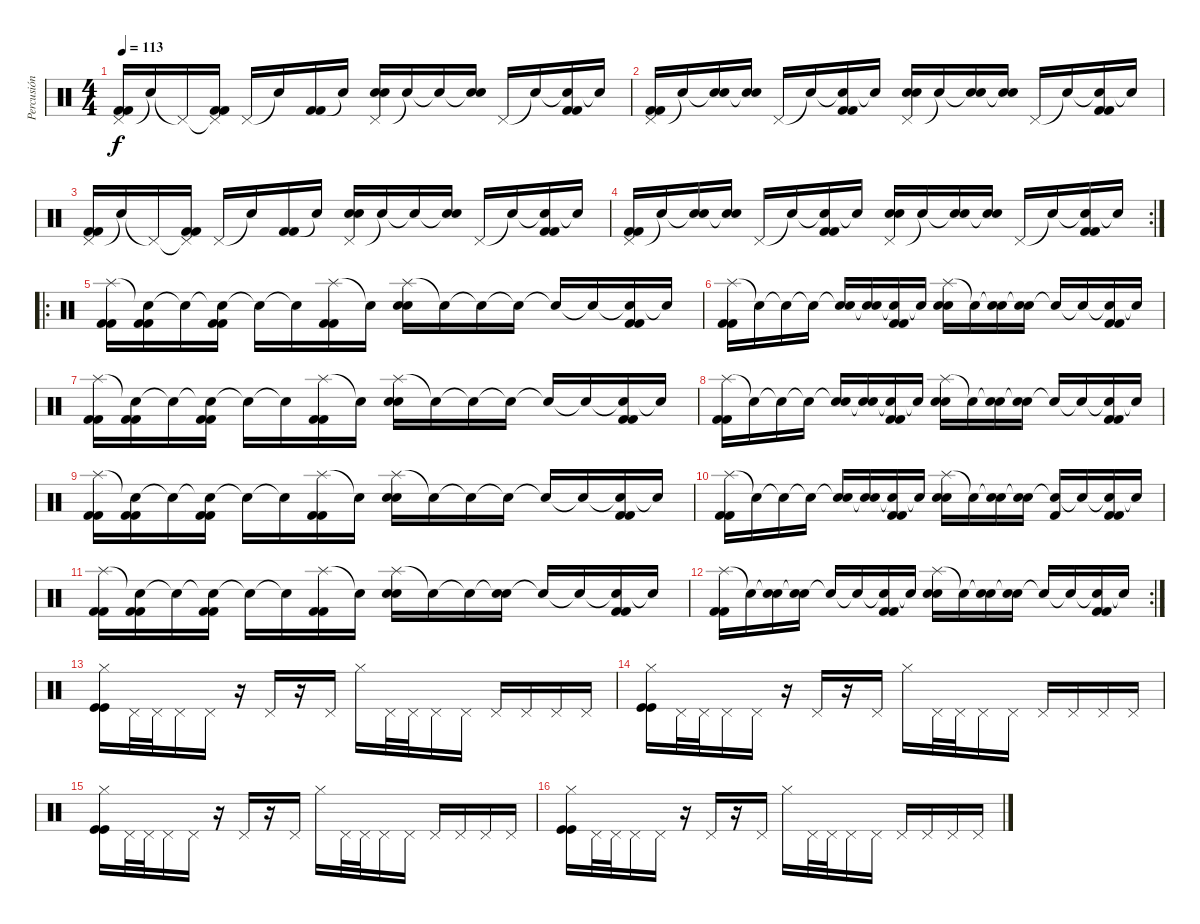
\track ("Percusión" "Percusión") {instrument percussion}
\staff {score}
\articulation defaults
\ts (4 4)
\tempo 113
\clef neutral
\ks c
("Pedal Hi-Hat (hit)" "Kick (hit) 2" "Kick (hit) 2").16{dy f} "Snare (hit)"{t}.16 "Pedal Hi-Hat (hit)"{t}.16 ("Pedal Hi-Hat (hit)"{t} "Kick (hit) 2" "Kick (hit) 2").16 "Pedal Hi-Hat (hit)".16 "Snare (hit)"{t}.16 ("Kick (hit) 2" "Kick (hit) 2").16 "Snare (hit)"{t}.16 ("Pedal Hi-Hat (hit)" "Electric Snare (hit)" "Electric Snare (hit)").16 "Snare (hit)"{t}.16 "Snare (hit)"{t}.16 ("Snare (hit)"{t} "Electric Snare (hit)").16 "Pedal Hi-Hat (hit)".16 "Snare (hit)"{t}.16 ("Snare (hit)"{t} "Kick (hit) 2" "Kick (hit) 2").16 "Snare (hit)"{t}.16 |
("Pedal Hi-Hat (hit)" "Kick (hit) 2" "Kick (hit) 2").16 "Snare (hit)"{t}.16 ("Snare (hit)"{t} "Electric Snare (hit)").16 ("Snare (hit)"{t} "Electric Snare (hit)").16 "Pedal Hi-Hat (hit)".16 "Snare (hit)"{t}.16 ("Snare (hit)"{t} "Kick (hit) 2" "Kick (hit) 2").16 "Snare (hit)"{t}.16 ("Pedal Hi-Hat (hit)" "Electric Snare (hit)" "Electric Snare (hit)").16 "Snare (hit)"{t}.16 ("Snare (hit)"{t} "Electric Snare (hit)").16 ("Snare (hit)"{t} "Electric Snare (hit)").16 "Pedal Hi-Hat (hit)".16 "Snare (hit)"{t}.16 ("Snare (hit)"{t} "Kick (hit) 2" "Kick (hit) 2").16 "Snare (hit)"{t}.16 |
("Pedal Hi-Hat (hit)" "Kick (hit) 2" "Kick (hit) 2").16 "Snare (hit)"{t}.16 "Pedal Hi-Hat (hit)"{t}.16 ("Pedal Hi-Hat (hit)"{t} "Kick (hit) 2" "Kick (hit) 2").16 "Pedal Hi-Hat (hit)".16 "Snare (hit)"{t}.16 ("Kick (hit) 2" "Kick (hit) 2").16 "Snare (hit)"{t}.16 ("Pedal Hi-Hat (hit)" "Electric Snare (hit)" "Electric Snare (hit)").16 "Snare (hit)"{t}.16 "Snare (hit)"{t}.16 ("Snare (hit)"{t} "Electric Snare (hit)").16 "Pedal Hi-Hat (hit)".16 "Snare (hit)"{t}.16 ("Snare (hit)"{t} "Kick (hit) 2" "Kick (hit) 2").16 "Snare (hit)"{t}.16 |
\rc 2
("Pedal Hi-Hat (hit)" "Kick (hit) 2" "Kick (hit) 2").16 "Snare (hit)"{t}.16 ("Snare (hit)"{t} "Electric Snare (hit)").16 ("Snare (hit)"{t} "Electric Snare (hit)").16 "Pedal Hi-Hat (hit)".16 "Snare (hit)"{t}.16 ("Snare (hit)"{t} "Kick (hit) 2" "Kick (hit) 2").16 "Snare (hit)"{t}.16 ("Pedal Hi-Hat (hit)" "Electric Snare (hit)" "Electric Snare (hit)").16 "Snare (hit)"{t}.16 ("Snare (hit)"{t} "Electric Snare (hit)").16 ("Snare (hit)"{t} "Electric Snare (hit)").16 "Pedal Hi-Hat (hit)".16 "Snare (hit)"{t}.16 ("Snare (hit)"{t} "Kick (hit) 2" "Kick (hit) 2").16 "Snare (hit)"{t}.16 |
\ro
("Splash (hit)" "Kick (hit) 2" "Kick (hit) 2").16 ("Snare (hit)"{t} "Kick (hit) 2" "Kick (hit) 2").16 "Snare (hit)"{t}.16 ("Snare (hit)"{t} "Kick (hit) 2" "Kick (hit) 2").16 "Snare (hit)"{t}.16 "Snare (hit)"{t}.16 ("Splash (hit)" "Kick (hit) 2" "Kick (hit) 2").16 "Snare (hit)"{t}.16 ("Splash (hit)" "Electric Snare (hit)" "Electric Snare (hit)").16 "Snare (hit)"{t}.16 "Snare (hit)"{t}.16 "Snare (hit)"{t}.16 "Snare (hit)"{t}.16 "Snare (hit)"{t}.16 ("Snare (hit)"{t} "Kick (hit) 2" "Kick (hit) 2").16 "Snare (hit)"{t}.16 |
("Splash (hit)" "Kick (hit) 2" "Kick (hit) 2").16 "Snare (hit)"{t}.16 "Snare (hit)"{t}.16 "Snare (hit)"{t}.16 ("Snare (hit)"{t} "Electric Snare (hit)").16 ("Snare (hit)"{t} "Electric Snare (hit)").16 ("Snare (hit)"{t} "Kick (hit) 2" "Kick (hit) 2").16 "Snare (hit)"{t}.16 ("Splash (hit)" "Electric Snare (hit)" "Electric Snare (hit)").16 "Snare (hit)"{t}.16 ("Snare (hit)"{t} "Electric Snare (hit)").16 ("Snare (hit)"{t} "Electric Snare (hit)").16 "Snare (hit)"{t}.16 "Snare (hit)"{t}.16 ("Snare (hit)"{t} "Kick (hit) 2" "Kick (hit) 2").16 "Snare (hit)"{t}.16 |
("Splash (hit)" "Kick (hit) 2" "Kick (hit) 2").16 ("Snare (hit)"{t} "Kick (hit) 2" "Kick (hit) 2").16 "Snare (hit)"{t}.16 ("Snare (hit)"{t} "Kick (hit) 2" "Kick (hit) 2").16 "Snare (hit)"{t}.16 "Snare (hit)"{t}.16 ("Splash (hit)" "Kick (hit) 2" "Kick (hit) 2").16 "Snare (hit)"{t}.16 ("Splash (hit)" "Electric Snare (hit)" "Electric Snare (hit)").16 "Snare (hit)"{t}.16 "Snare (hit)"{t}.16 "Snare (hit)"{t}.16 "Snare (hit)"{t}.16 "Snare (hit)"{t}.16 ("Snare (hit)"{t} "Kick (hit) 2" "Kick (hit) 2").16 "Snare (hit)"{t}.16 |
("Splash (hit)" "Kick (hit) 2" "Kick (hit) 2").16 "Snare (hit)"{t}.16 "Snare (hit)"{t}.16 "Snare (hit)"{t}.16 ("Snare (hit)"{t} "Electric Snare (hit)").16 ("Snare (hit)"{t} "Electric Snare (hit)").16 ("Snare (hit)"{t} "Kick (hit) 2" "Kick (hit) 2").16 "Snare (hit)"{t}.16 ("Splash (hit)" "Electric Snare (hit)" "Electric Snare (hit)").16 "Snare (hit)"{t}.16 ("Snare (hit)"{t} "Electric Snare (hit)").16 ("Snare (hit)"{t} "Electric Snare (hit)").16 "Snare (hit)"{t}.16 "Snare (hit)"{t}.16 ("Snare (hit)"{t} "Kick (hit) 2" "Kick (hit) 2").16 "Snare (hit)"{t}.16 |
("Splash (hit)" "Kick (hit) 2" "Kick (hit) 2").16 ("Snare (hit)"{t} "Kick (hit) 2" "Kick (hit) 2").16 "Snare (hit)"{t}.16 ("Snare (hit)"{t} "Kick (hit) 2" "Kick (hit) 2").16 "Snare (hit)"{t}.16 "Snare (hit)"{t}.16 ("Splash (hit)" "Kick (hit) 2" "Kick (hit) 2").16 "Snare (hit)"{t}.16 ("Splash (hit)" "Electric Snare (hit)" "Electric Snare (hit)").16 "Snare (hit)"{t}.16 "Snare (hit)"{t}.16 "Snare (hit)"{t}.16 "Snare (hit)"{t}.16 "Snare (hit)"{t}.16 ("Snare (hit)"{t} "Kick (hit) 2" "Kick (hit) 2").16 "Snare (hit)"{t}.16 |
("Splash (hit)" "Kick (hit) 2" "Kick (hit) 2").16 "Snare (hit)"{t}.16 "Snare (hit)"{t}.16 "Snare (hit)"{t}.16 ("Snare (hit)"{t} "Electric Snare (hit)").16 ("Snare (hit)"{t} "Electric Snare (hit)").16 ("Snare (hit)"{t} "Kick (hit) 2" "Kick (hit) 2").16 "Snare (hit)"{t}.16 ("Splash (hit)" "Electric Snare (hit)" "Electric Snare (hit)").16 "Snare (hit)"{t}.16 ("Snare (hit)"{t} "Electric Snare (hit)").16 ("Snare (hit)"{t} "Electric Snare (hit)").16 ("Snare (hit)"{t} "Kick (hit) 2").16 "Snare (hit)"{t}.16 ("Snare (hit)"{t} "Kick (hit) 2" "Kick (hit) 2").16 "Snare (hit)"{t}.16 |
("Splash (hit)" "Kick (hit) 2" "Kick (hit) 2").16 ("Snare (hit)"{t} "Kick (hit) 2" "Kick (hit) 2").16 "Snare (hit)"{t}.16 ("Snare (hit)"{t} "Kick (hit) 2" "Kick (hit) 2").16 "Snare (hit)"{t}.16 "Snare (hit)"{t}.16 ("Splash (hit)" "Kick (hit) 2" "Kick (hit) 2").16 "Snare (hit)"{t}.16 ("Splash (hit)" "Electric Snare (hit)" "Electric Snare (hit)").16 "Snare (hit)"{t}.16 "Snare (hit)"{t}.16 ("Snare (hit)"{t} "Electric Snare (hit)").16 "Snare (hit)"{t}.16 "Snare (hit)"{t}.16 ("Snare (hit)"{t} "Kick (hit) 2" "Kick (hit) 2").16 "Snare (hit)"{t}.16 |
\rc 2
("Splash (hit)" "Kick (hit) 2" "Kick (hit) 2").16 "Snare (hit)"{t}.16 ("Snare (hit)"{t} "Electric Snare (hit)").16 ("Snare (hit)"{t} "Electric Snare (hit)").16 "Snare (hit)"{t}.16 "Snare (hit)"{t}.16 ("Snare (hit)"{t} "Kick (hit) 2" "Kick (hit) 2").16 "Snare (hit)"{t}.16 ("Splash (hit)" "Electric Snare (hit)" "Electric Snare (hit)").16 "Snare (hit)"{t}.16 ("Snare (hit)"{t} "Electric Snare (hit)").16 ("Snare (hit)"{t} "Electric Snare (hit)").16 "Snare (hit)"{t}.16 "Snare (hit)"{t}.16 ("Snare (hit)"{t} "Kick (hit) 2" "Kick (hit) 2").16 "Snare (hit)"{t}.16 |
("Hi-Hat (closed)" "Kick (hit)" "Kick (hit)").16 "Pedal Hi-Hat (hit)".32 "Pedal Hi-Hat (hit)".32 "Pedal Hi-Hat (hit)".16 "Pedal Hi-Hat (hit)".16 r.16 "Pedal Hi-Hat (hit)".16 r.16 "Pedal Hi-Hat (hit)".16 "Hi-Hat (closed)".16 "Pedal Hi-Hat (hit)".32 "Pedal Hi-Hat (hit)".32 "Pedal Hi-Hat (hit)".16 "Pedal Hi-Hat (hit)".16 "Pedal Hi-Hat (hit)".16 "Pedal Hi-Hat (hit)".16 "Pedal Hi-Hat (hit)".16 "Pedal Hi-Hat (hit)".16 |
("Hi-Hat (closed)" "Kick (hit)" "Kick (hit)").16 "Pedal Hi-Hat (hit)".32 "Pedal Hi-Hat (hit)".32 "Pedal Hi-Hat (hit)".16 "Pedal Hi-Hat (hit)".16 r.16 "Pedal Hi-Hat (hit)".16 r.16 "Pedal Hi-Hat (hit)".16 "Hi-Hat (closed)".16 "Pedal Hi-Hat (hit)".32 "Pedal Hi-Hat (hit)".32 "Pedal Hi-Hat (hit)".16 "Pedal Hi-Hat (hit)".16 "Pedal Hi-Hat (hit)".16 "Pedal Hi-Hat (hit)".16 "Pedal Hi-Hat (hit)".16 "Pedal Hi-Hat (hit)".16 |
("Hi-Hat (closed)" "Kick (hit)" "Kick (hit)").16 "Pedal Hi-Hat (hit)".32 "Pedal Hi-Hat (hit)".32 "Pedal Hi-Hat (hit)".16 "Pedal Hi-Hat (hit)".16 r.16 "Pedal Hi-Hat (hit)".16 r.16 "Pedal Hi-Hat (hit)".16 "Hi-Hat (closed)".16 "Pedal Hi-Hat (hit)".32 "Pedal Hi-Hat (hit)".32 "Pedal Hi-Hat (hit)".16 "Pedal Hi-Hat (hit)".16 "Pedal Hi-Hat (hit)".16 "Pedal Hi-Hat (hit)".16 "Pedal Hi-Hat (hit)".16 "Pedal Hi-Hat (hit)".16 |
("Hi-Hat (closed)" "Kick (hit)" "Kick (hit)").16 "Pedal Hi-Hat (hit)".32 "Pedal Hi-Hat (hit)".32 "Pedal Hi-Hat (hit)".16 "Pedal Hi-Hat (hit)".16 r.16 "Pedal Hi-Hat (hit)".16 r.16 "Pedal Hi-Hat (hit)".16 "Hi-Hat (closed)".16 "Pedal Hi-Hat (hit)".32 "Pedal Hi-Hat (hit)".32 "Pedal Hi-Hat (hit)".16 "Pedal Hi-Hat (hit)".16 "Pedal Hi-Hat (hit)".16 "Pedal Hi-Hat (hit)".16 "Pedal Hi-Hat (hit)".16 "Pedal Hi-Hat (hit)".16
